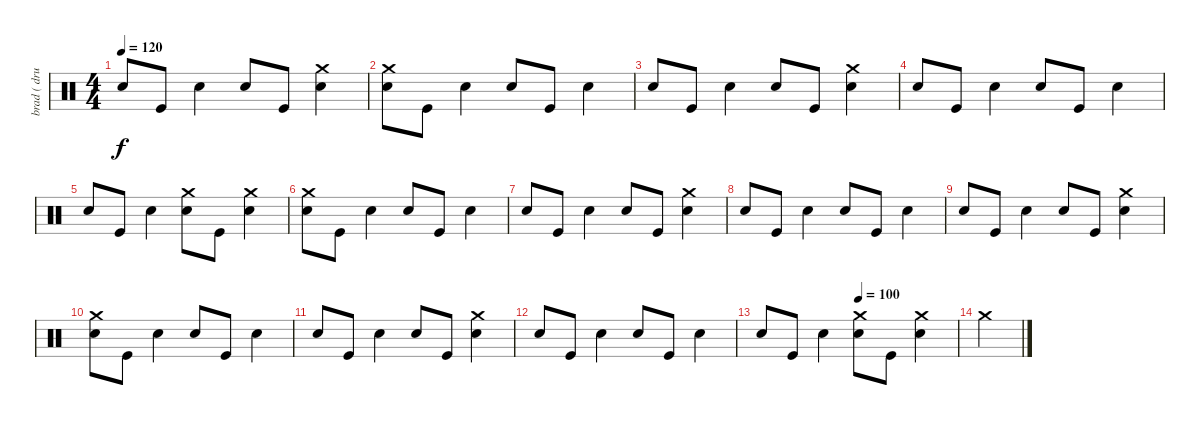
\track ("brad ( drums)" "brad ( dru") {instrument percussion}
\staff {score}
\articulation defaults
\ts (4 4)
\tempo 120
\clef neutral
\ks c "Electric Snare (hit)".8{dy f} "Kick (hit)".8 "Electric Snare (hit)".4 "Electric Snare (hit)".8 "Kick (hit)".8
("Electric Snare (hit)" "Crash medium (hit)").4 |
("Electric Snare (hit)" "Crash medium (hit)").8 "Kick (hit)".8 "Electric Snare (hit)".4 "Electric Snare (hit)".8 "Kick (hit)".8 "Electric Snare (hit)".4 |
"Electric Snare (hit)".8 "Kick (hit)".8 "Electric Snare (hit)".4 "Electric Snare (hit)".8 "Kick (hit)".8 ("Electric Snare (hit)" "Crash medium (hit)").4 |
"Electric Snare (hit)".8 "Kick (hit)".8 "Electric Snare (hit)".4 "Electric Snare (hit)".8 "Kick (hit)".8 "Electric Snare (hit)".4 |
"Electric Snare (hit)".8 "Kick (hit)".8 "Electric Snare (hit)".4 ("Electric Snare (hit)" "Crash medium (hit)").8 "Kick (hit)".8 ("Electric Snare (hit)" "Crash medium (hit)").4 |
("Electric Snare (hit)" "Crash medium (hit)").8 "Kick (hit)".8 "Electric Snare (hit)".4 "Electric Snare (hit)".8 "Kick (hit)".8 "Electric Snare (hit)".4 |
"Electric Snare (hit)".8 "Kick (hit)".8 "Electric Snare (hit)".4 "Electric Snare (hit)".8 "Kick (hit)".8 ("Electric Snare (hit)" "Crash medium (hit)").4 |
"Electric Snare (hit)".8 "Kick (hit)".8 "Electric Snare (hit)".4 "Electric Snare (hit)".8 "Kick (hit)".8 "Electric Snare (hit)".4 |
"Electric Snare (hit)".8 "Kick (hit)".8 "Electric Snare (hit)".4 "Electric Snare (hit)".8 "Kick (hit)".8 ("Electric Snare (hit)" "Crash medium (hit)").4 |
("Electric Snare (hit)" "Crash medium (hit)").8 "Kick (hit)".8 "Electric Snare (hit)".4 "Electric Snare (hit)".8 "Kick (hit)".8 "Electric Snare (hit)".4 |
"Electric Snare (hit)".8 "Kick (hit)".8 "Electric Snare (hit)".4 "Electric Snare (hit)".8 "Kick (hit)".8 ("Electric Snare (hit)" "Crash medium (hit)").4 |
"Electric Snare (hit)".8 "Kick (hit)".8 "Electric Snare (hit)".4 "Electric Snare (hit)".8 "Kick (hit)".8 "Electric Snare (hit)".4 |
\tempo (100 0.5)
"Electric Snare (hit)".8 "Kick (hit)".8 "Electric Snare (hit)".4 ("Electric Snare (hit)" "Crash medium (hit)").8 "Kick (hit)".8 ("Electric Snare (hit)" "Crash medium (hit)").4 |
"Crash medium (hit)".4
